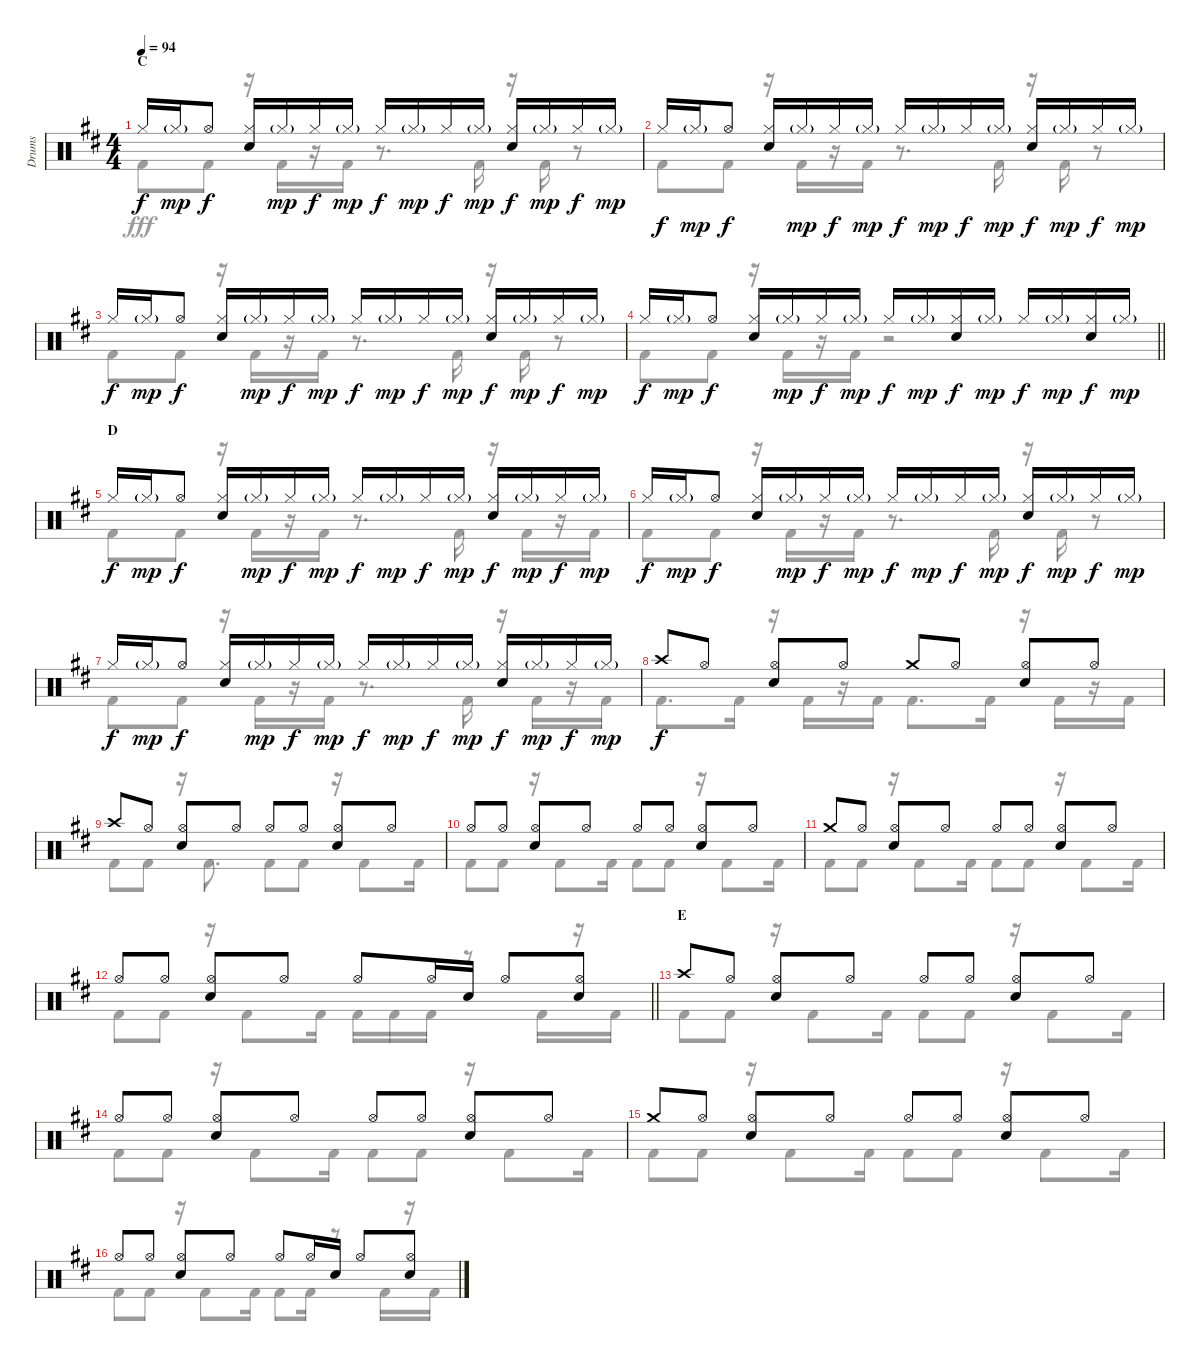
\track ("Drums" "Drums") {instrument percussion}
\staff {score}
\articulation defaults
\voice
\ts (4 4)
\section ("" "C")
\tempo 94
\clef neutral
\ks d "Hi-Hat (closed)".16{dy f} "Hi-Hat (closed)"{g}.16{dy mp} "Hi-Hat (open)".8{dy f}
("Hi-Hat (closed)" "Snare (hit) 2").16 "Hi-Hat (closed)"{g}.16{dy mp} "Hi-Hat (closed)".16{dy f} "Hi-Hat (closed)"{g}.16{dy mp} "Hi-Hat (closed)".16{dy f} "Hi-Hat (closed)"{g}.16{dy mp} "Hi-Hat (closed)".16{dy f} "Hi-Hat (closed)"{g}.16{dy mp} ("Hi-Hat (closed)" "Snare (hit) 2").16{dy f} "Hi-Hat (closed)"{g}.16{dy mp} "Hi-Hat (closed)".16{dy f} "Hi-Hat (closed)"{g}.16{dy mp} |
"Hi-Hat (closed)".16{dy f} "Hi-Hat (closed)"{g}.16{dy mp} "Hi-Hat (open)".8{dy f} ("Hi-Hat (closed)" "Snare (hit) 2").16 "Hi-Hat (closed)"{g}.16{dy mp} "Hi-Hat (closed)".16{dy f} "Hi-Hat (closed)"{g}.16{dy mp} "Hi-Hat (closed)".16{dy f} "Hi-Hat (closed)"{g}.16{dy mp} "Hi-Hat (closed)".16{dy f} "Hi-Hat (closed)"{g}.16{dy mp} ("Hi-Hat (closed)" "Snare (hit) 2").16{dy f} "Hi-Hat (closed)"{g}.16{dy mp} "Hi-Hat (closed)".16{dy f} "Hi-Hat (closed)"{g}.16{dy mp} |
"Hi-Hat (closed)".16{dy f} "Hi-Hat (closed)"{g}.16{dy mp} "Hi-Hat (open)".8{dy f} ("Hi-Hat (closed)" "Snare (hit) 2").16 "Hi-Hat (closed)"{g}.16{dy mp} "Hi-Hat (closed)".16{dy f} "Hi-Hat (closed)"{g}.16{dy mp} "Hi-Hat (closed)".16{dy f} "Hi-Hat (closed)"{g}.16{dy mp} "Hi-Hat (closed)".16{dy f} "Hi-Hat (closed)"{g}.16{dy mp} ("Hi-Hat (closed)" "Snare (hit) 2").16{dy f} "Hi-Hat (closed)"{g}.16{dy mp} "Hi-Hat (closed)".16{dy f} "Hi-Hat (closed)"{g}.16{dy mp} |
\barLineRight lightlight "Hi-Hat (closed)".16{dy f} "Hi-Hat (closed)"{g}.16{dy mp} "Hi-Hat (open)".8{dy f}
("Hi-Hat (closed)" "Snare (hit) 2").16 "Hi-Hat (closed)"{g}.16{dy mp} "Hi-Hat (closed)".16{dy f} "Hi-Hat (closed)"{g}.16{dy mp} "Hi-Hat (closed)".16{dy f} "Hi-Hat (closed)"{g}.16{dy mp} ("Hi-Hat (closed)" "Snare (hit) 2").16{dy f} "Hi-Hat (closed)"{g}.16{dy mp} "Hi-Hat (closed)".16{dy f} "Hi-Hat (closed)"{g}.16{dy mp} ("Hi-Hat (closed)" "Snare (hit) 2").16{dy f} "Hi-Hat (closed)"{g}.16{dy mp} |
\section ("" "D")
"Hi-Hat (closed)".16{dy f} "Hi-Hat (closed)"{g}.16{dy mp} "Hi-Hat (open)".8{dy f} ("Hi-Hat (closed)" "Snare (hit) 2").16 "Hi-Hat (closed)"{g}.16{dy mp} "Hi-Hat (closed)".16{dy f} "Hi-Hat (closed)"{g}.16{dy mp} "Hi-Hat (closed)".16{dy f} "Hi-Hat (closed)"{g}.16{dy mp} "Hi-Hat (closed)".16{dy f} "Hi-Hat (closed)"{g}.16{dy mp} ("Hi-Hat (closed)" "Snare (hit) 2").16{dy f} "Hi-Hat (closed)"{g}.16{dy mp} "Hi-Hat (closed)".16{dy f} "Hi-Hat (closed)"{g}.16{dy mp} |
"Hi-Hat (closed)".16{dy f} "Hi-Hat (closed)"{g}.16{dy mp} "Hi-Hat (open)".8{dy f} ("Hi-Hat (closed)" "Snare (hit) 2").16 "Hi-Hat (closed)"{g}.16{dy mp} "Hi-Hat (closed)".16{dy f} "Hi-Hat (closed)"{g}.16{dy mp} "Hi-Hat (closed)".16{dy f} "Hi-Hat (closed)"{g}.16{dy mp} "Hi-Hat (closed)".16{dy f} "Hi-Hat (closed)"{g}.16{dy mp} ("Hi-Hat (closed)" "Snare (hit) 2").16{dy f} "Hi-Hat (closed)"{g}.16{dy mp} "Hi-Hat (closed)".16{dy f} "Hi-Hat (closed)"{g}.16{dy mp} |
"Hi-Hat (closed)".16{dy f} "Hi-Hat (closed)"{g}.16{dy mp} "Hi-Hat (open)".8{dy f} ("Hi-Hat (closed)" "Snare (hit) 2").16 "Hi-Hat (closed)"{g}.16{dy mp} "Hi-Hat (closed)".16{dy f} "Hi-Hat (closed)"{g}.16{dy mp} "Hi-Hat (closed)".16{dy f} "Hi-Hat (closed)"{g}.16{dy mp} "Hi-Hat (closed)".16{dy f} "Hi-Hat (closed)"{g}.16{dy mp} ("Hi-Hat (closed)" "Snare (hit) 2").16{dy f} "Hi-Hat (closed)"{g}.16{dy mp} "Hi-Hat (closed)".16{dy f} "Hi-Hat (closed)"{g}.16{dy mp} |
"Crash high (hit)".8{dy f} "Hi-Hat (open)".8 ("Hi-Hat (open)" "Snare (hit) 2").8 "Hi-Hat (open)".8 "Crash medium (hit)".8 "Hi-Hat (open)".8 ("Hi-Hat (open)" "Snare (hit) 2").8 "Hi-Hat (open)".8 |
"Crash high (hit)".8 "Hi-Hat (open)".8 ("Hi-Hat (open)" "Snare (hit) 2").8 "Hi-Hat (open)".8 "Hi-Hat (open)".8 "Hi-Hat (open)".8 ("Hi-Hat (open)" "Snare (hit) 2").8 "Hi-Hat (open)".8 |
"Hi-Hat (open)".8 "Hi-Hat (open)".8 ("Hi-Hat (open)" "Snare (hit) 2").8 "Hi-Hat (open)".8 "Hi-Hat (open)".8 "Hi-Hat (open)".8 ("Hi-Hat (open)" "Snare (hit) 2").8 "Hi-Hat (open)".8 |
"Crash medium (hit)".8 "Hi-Hat (open)".8 ("Hi-Hat (open)" "Snare (hit) 2").8 "Hi-Hat (open)".8 "Hi-Hat (open)".8 "Hi-Hat (open)".8 ("Hi-Hat (open)" "Snare (hit) 2").8 "Hi-Hat (open)".8 |
\barLineRight lightlight "Hi-Hat (open)".8 "Hi-Hat (open)".8
("Hi-Hat (open)" "Snare (hit) 2").8 "Hi-Hat (open)".8 "Hi-Hat (open)".8 "Hi-Hat (open)".16 "Snare (hit) 2".16 "Hi-Hat (open)".8 ("Hi-Hat (open)" "Snare (hit) 2").8 |
\section ("" "E")
"Crash high (hit)".8 "Hi-Hat (open)".8 ("Hi-Hat (open)" "Snare (hit) 2").8 "Hi-Hat (open)".8 "Hi-Hat (open)".8 "Hi-Hat (open)".8 ("Hi-Hat (open)" "Snare (hit) 2").8 "Hi-Hat (open)".8 |
"Hi-Hat (open)".8 "Hi-Hat (open)".8 ("Hi-Hat (open)" "Snare (hit) 2").8 "Hi-Hat (open)".8 "Hi-Hat (open)".8 "Hi-Hat (open)".8 ("Hi-Hat (open)" "Snare (hit) 2").8 "Hi-Hat (open)".8 |
"Crash medium (hit)".8 "Hi-Hat (open)".8 ("Hi-Hat (open)" "Snare (hit) 2").8 "Hi-Hat (open)".8 "Hi-Hat (open)".8 "Hi-Hat (open)".8 ("Hi-Hat (open)" "Snare (hit) 2").8 "Hi-Hat (open)".8 |
"Hi-Hat (open)".8 "Hi-Hat (open)".8 ("Hi-Hat (open)" "Snare (hit) 2").8 "Hi-Hat (open)".8 "Hi-Hat (open)".8 "Hi-Hat (open)".16 "Snare (hit) 2".16 "Hi-Hat (open)".8 ("Hi-Hat (open)" "Snare (hit) 2").8
\voice
\clef neutral
\ottava regular
\simile none
\ks d "Kick (hit) 2".8{dy fff} "Kick (hit) 2".8
r.16 "Kick (hit) 2".16 r.16 "Kick (hit) 2".16 r.8{d} "Kick (hit) 2".16 r.16 "Kick (hit) 2".16 r.8 |
"Kick (hit) 2".8 "Kick (hit) 2".8 r.16 "Kick (hit) 2".16 r.16 "Kick (hit) 2".16 r.8{d} "Kick (hit) 2".16 r.16 "Kick (hit) 2".16 r.8 |
"Kick (hit) 2".8 "Kick (hit) 2".8 r.16 "Kick (hit) 2".16 r.16 "Kick (hit) 2".16 r.8{d} "Kick (hit) 2".16 r.16 "Kick (hit) 2".16 r.8 |
\barLineRight lightlight "Kick (hit) 2".8 "Kick (hit) 2".8
r.16 "Kick (hit) 2".16 r.16 "Kick (hit) 2".16 r.2 |
"Kick (hit) 2".8 "Kick (hit) 2".8 r.16 "Kick (hit) 2".16 r.16 "Kick (hit) 2".16 r.8{d} "Kick (hit) 2".16 r.16 "Kick (hit) 2".16 r.16 "Kick (hit) 2".16 |
"Kick (hit) 2".8 "Kick (hit) 2".8 r.16 "Kick (hit) 2".16 r.16 "Kick (hit) 2".16 r.8{d} "Kick (hit) 2".16 r.16 "Kick (hit) 2".16 r.8 |
"Kick (hit) 2".8 "Kick (hit) 2".8 r.16 "Kick (hit) 2".16 r.16 "Kick (hit) 2".16 r.8{d} "Kick (hit) 2".16 r.16 "Kick (hit) 2".16 r.16 "Kick (hit) 2".16 |
"Kick (hit) 2".8{d} "Kick (hit) 2".16 r.16 "Kick (hit) 2".16 r.16 "Kick (hit) 2".16 "Kick (hit) 2".8{d} "Kick (hit) 2".16 r.16 "Kick (hit) 2".16 r.16 "Kick (hit) 2".16 |
"Kick (hit) 2".8 "Kick (hit) 2".8 r.16 "Kick (hit) 2".8{d} "Kick (hit) 2".8 "Kick (hit) 2".8 r.16 "Kick (hit) 2".8 "Kick (hit) 2".16 |
"Kick (hit) 2".8 "Kick (hit) 2".8 r.16 "Kick (hit) 2".8 "Kick (hit) 2".16 "Kick (hit) 2".8 "Kick (hit) 2".8 r.16 "Kick (hit) 2".8 "Kick (hit) 2".16 |
"Kick (hit) 2".8 "Kick (hit) 2".8 r.16 "Kick (hit) 2".8 "Kick (hit) 2".16 "Kick (hit) 2".8 "Kick (hit) 2".8 r.16 "Kick (hit) 2".8 "Kick (hit) 2".16 |
\barLineRight lightlight "Kick (hit) 2".8 "Kick (hit) 2".8
r.16 "Kick (hit) 2".8 "Kick (hit) 2".16 "Kick (hit) 2".16 "Kick (hit) 2".16 "Kick (hit) 2".16 r.8 "Kick (hit) 2".16 r.16 "Kick (hit) 2".16 |
"Kick (hit) 2".8 "Kick (hit) 2".8 r.16 "Kick (hit) 2".8 "Kick (hit) 2".16 "Kick (hit) 2".8 "Kick (hit) 2".8 r.16 "Kick (hit) 2".8 "Kick (hit) 2".16 |
"Kick (hit) 2".8 "Kick (hit) 2".8 r.16 "Kick (hit) 2".8 "Kick (hit) 2".16 "Kick (hit) 2".8 "Kick (hit) 2".8 r.16 "Kick (hit) 2".8 "Kick (hit) 2".16 |
"Kick (hit) 2".8 "Kick (hit) 2".8 r.16 "Kick (hit) 2".8 "Kick (hit) 2".16 "Kick (hit) 2".8 "Kick (hit) 2".8 r.16 "Kick (hit) 2".8 "Kick (hit) 2".16 |
"Kick (hit) 2".8 "Kick (hit) 2".8 r.16 "Kick (hit) 2".8 "Kick (hit) 2".16 "Kick (hit) 2".8 "Kick (hit) 2".16 r.8 "Kick (hit) 2".16 r.16 "Kick (hit) 2".16
